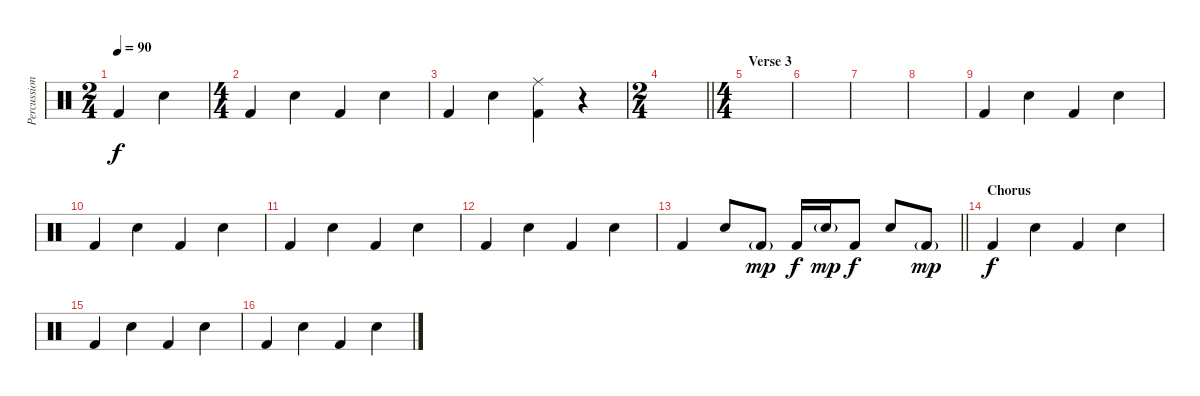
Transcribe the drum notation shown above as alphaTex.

\track ("Percussion" "Percussion") {instrument percussion}
\staff {score}
\articulation defaults
\ts (2 4)
\tempo 90
\clef neutral
\ks c "Kick (hit) 2".4{dy f} "Snare (hit) 2".4
|
\ts (4 4)
"Kick (hit) 2".4 "Snare (hit) 2".4 "Kick (hit) 2".4 "Snare (hit) 2".4 |
"Kick (hit) 2".4 "Snare (hit) 2".4 ("Ride (middle)" "Kick (hit) 2").4 r.4 |
\ts (2 4)
\barLineRight lightlight
|
\ts (4 4)
\section ("" "Verse 3")
|
|
|
|
"Kick (hit) 2".4 "Snare (hit) 2".4 "Kick (hit) 2".4 "Snare (hit) 2".4 |
"Kick (hit) 2".4 "Snare (hit) 2".4 "Kick (hit) 2".4 "Snare (hit) 2".4 |
"Kick (hit) 2".4 "Snare (hit) 2".4 "Kick (hit) 2".4 "Snare (hit) 2".4 |
"Kick (hit) 2".4 "Snare (hit) 2".4 "Kick (hit) 2".4 "Snare (hit) 2".4 |
\barLineRight lightlight "Kick (hit) 2".4 "Snare (hit) 2".8 "Kick (hit) 2"{g}.8{dy mp} "Kick (hit) 2".16{dy f} "Snare (hit) 2"{g}.16{dy mp} "Kick (hit) 2".8{dy f} "Snare (hit) 2".8 "Kick (hit) 2"{g}.8{dy mp}
|
\section ("" "Chorus")
"Kick (hit) 2".4{dy f} "Snare (hit) 2".4 "Kick (hit) 2".4 "Snare (hit) 2".4 |
"Kick (hit) 2".4 "Snare (hit) 2".4 "Kick (hit) 2".4 "Snare (hit) 2".4 |
"Kick (hit) 2".4 "Snare (hit) 2".4 "Kick (hit) 2".4 "Snare (hit) 2".4
